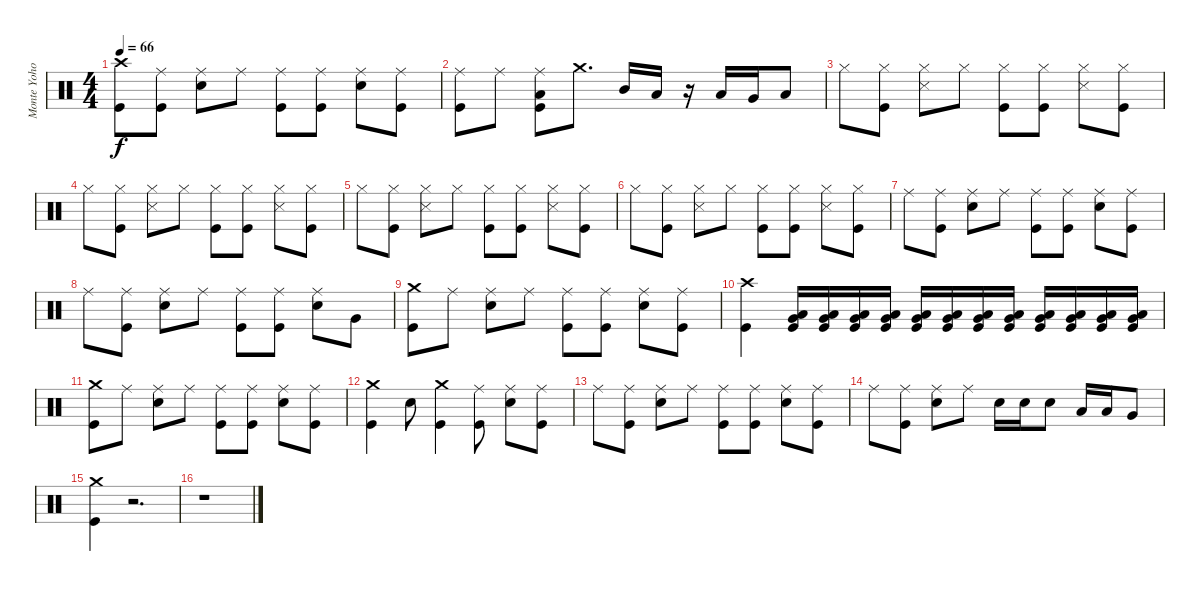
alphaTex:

\track ("Monte Yoho Drums" "Monte Yoho") {instrument percussion}
\staff {score}
\articulation defaults
\ts (4 4)
\tempo 66
\clef neutral
\ks c
("Crash high (hit)" "Kick (hit)").8{dy f} ("Ride (middle)" "Kick (hit)").8 ("Ride (middle)" "Snare (hit) 2").8 "Ride (middle)".8 ("Ride (middle)" "Kick (hit)").8 ("Ride (middle)" "Kick (hit)").8 ("Ride (middle)" "Snare (hit) 2").8 ("Ride (middle)" "Kick (hit)").8 |
("Ride (middle)" "Kick (hit)").8 "Ride (middle)".8 ("Ride (middle)" "Low Tom (hit)" "Kick (hit)").8 "Crash medium (hit)".8{d} "Mid Tom (hit)".16 "Low Tom (hit)".16 r.16 "Low Tom (hit)".16 "Very Low Tom (hit)".16 "Low Floor Tom (hit)".8 |
"Hi-Hat (closed)".8 ("Hi-Hat (closed)" "Kick (hit)").8 ("Hi-Hat (closed)" "Snare (side stick) 3").8 "Hi-Hat (closed)".8 ("Hi-Hat (closed)" "Kick (hit)").8 ("Hi-Hat (closed)" "Kick (hit)").8 ("Hi-Hat (closed)" "Snare (side stick) 3").8 ("Hi-Hat (closed)" "Kick (hit)").8 |
"Hi-Hat (closed)".8 ("Hi-Hat (closed)" "Kick (hit)").8 ("Hi-Hat (closed)" "Snare (side stick) 3").8 "Hi-Hat (closed)".8 ("Hi-Hat (closed)" "Kick (hit)").8 ("Hi-Hat (closed)" "Kick (hit)").8 ("Hi-Hat (closed)" "Snare (side stick) 3").8 ("Hi-Hat (closed)" "Kick (hit)").8 |
"Hi-Hat (closed)".8 ("Hi-Hat (closed)" "Kick (hit)").8 ("Hi-Hat (closed)" "Snare (side stick) 3").8 "Hi-Hat (closed)".8 ("Hi-Hat (closed)" "Kick (hit)").8 ("Hi-Hat (closed)" "Kick (hit)").8 ("Hi-Hat (closed)" "Snare (side stick) 3").8 ("Hi-Hat (closed)" "Kick (hit)").8 |
"Hi-Hat (closed)".8 ("Hi-Hat (closed)" "Kick (hit)").8 ("Hi-Hat (closed)" "Snare (side stick) 3").8 "Hi-Hat (closed)".8 ("Hi-Hat (closed)" "Kick (hit)").8 ("Hi-Hat (closed)" "Kick (hit)").8 ("Hi-Hat (closed)" "Snare (side stick) 3").8 ("Hi-Hat (closed)" "Kick (hit)").8 |
"Ride (middle)".8 ("Ride (middle)" "Kick (hit)").8 ("Ride (middle)" "Snare (hit) 2").8 "Ride (middle)".8 ("Ride (middle)" "Kick (hit)").8 ("Ride (middle)" "Kick (hit)").8 ("Ride (middle)" "Snare (hit) 2").8 ("Ride (middle)" "Kick (hit)").8 |
"Ride (middle)".8 ("Ride (middle)" "Kick (hit)").8 ("Ride (middle)" "Snare (hit) 2").8 "Ride (middle)".8 ("Ride (middle)" "Kick (hit)").8 ("Ride (middle)" "Kick (hit)").8 ("Ride (middle)" "Snare (hit) 2").8 "Very Low Tom (hit)".8 |
("Crash medium (hit)" "Kick (hit)").8 "Ride (middle)".8 ("Ride (middle)" "Snare (hit) 2").8 "Ride (middle)".8 ("Ride (middle)" "Kick (hit)").8 ("Ride (middle)" "Kick (hit)").8 ("Ride (middle)" "Snare (hit) 2").8 ("Ride (middle)" "Kick (hit)").8 |
("Crash high (hit)" "Kick (hit)").4 ("Very Low Tom (hit)" "Low Floor Tom (hit)" "Kick (hit)").16 ("Very Low Tom (hit)" "Low Floor Tom (hit)" "Kick (hit)").16 ("Very Low Tom (hit)" "Low Floor Tom (hit)" "Kick (hit)").16 ("Very Low Tom (hit)" "Low Floor Tom (hit)" "Kick (hit)").16 ("Very Low Tom (hit)" "Low Floor Tom (hit)" "Kick (hit)").16 ("Very Low Tom (hit)" "Low Floor Tom (hit)" "Kick (hit)").16 ("Very Low Tom (hit)" "Low Floor Tom (hit)" "Kick (hit)").16 ("Very Low Tom (hit)" "Low Floor Tom (hit)" "Kick (hit)").16 ("Very Low Tom (hit)" "Low Floor Tom (hit)" "Kick (hit)").16 ("Very Low Tom (hit)" "Low Floor Tom (hit)" "Kick (hit)").16 ("Very Low Tom (hit)" "Low Floor Tom (hit)" "Kick (hit)").16 ("Very Low Tom (hit)" "Low Floor Tom (hit)" "Kick (hit)").16 |
("Crash medium (hit)" "Kick (hit)").8 "Ride (middle)".8 ("Ride (middle)" "Snare (hit) 2").8 "Ride (middle)".8 ("Ride (middle)" "Kick (hit)").8 ("Ride (middle)" "Kick (hit)").8 ("Ride (middle)" "Snare (hit) 2").8 ("Ride (middle)" "Kick (hit)").8 |
("Crash medium (hit)" "Kick (hit)").4 "Snare (hit) 2".8 ("Crash medium (hit)" "Kick (hit)").4 ("Ride (middle)" "Kick (hit)").8 ("Ride (middle)" "Snare (hit) 2").8 ("Ride (middle)" "Kick (hit)").8 |
"Ride (middle)".8 ("Ride (middle)" "Kick (hit)").8 ("Ride (middle)" "Snare (hit) 2").8 "Ride (middle)".8 ("Ride (middle)" "Kick (hit)").8 ("Ride (middle)" "Kick (hit)").8 ("Ride (middle)" "Snare (hit) 2").8 ("Ride (middle)" "Kick (hit)").8 |
"Ride (middle)".8 ("Ride (middle)" "Kick (hit)").8 ("Ride (middle)" "Snare (hit) 2").8 "Ride (middle)".8 "Snare (hit) 2".16 "Snare (hit) 2".16 "Snare (hit) 2".8 "Low Tom (hit)".16 "Low Tom (hit)".16 "Very Low Tom (hit)".8 |
("Crash medium (hit)" "Kick (hit)").4 r.2{d} |
r.1
